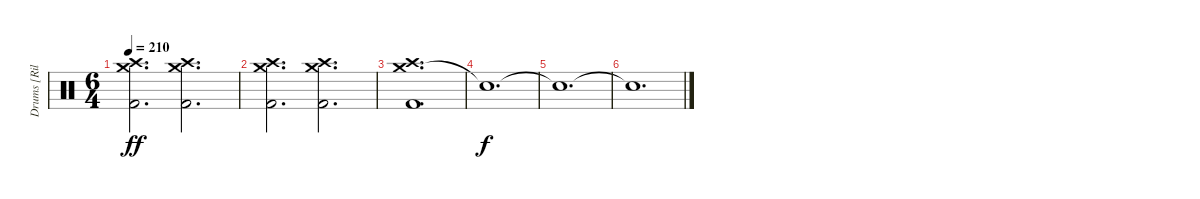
\track ("Drums [Riley]" "Drums [Ril") {instrument percussion}
\staff {score}
\articulation defaults
\ts (6 4)
\tempo 210
\clef neutral
\ks c
("Crash medium (hit)" "Crash high (hit)" "Kick (hit) 2").2{d dy ff} ("Crash medium (hit)" "Crash high (hit)" "Kick (hit) 2").2{d} |
("Crash medium (hit)" "Crash high (hit)" "Kick (hit) 2").2{d} ("Crash medium (hit)" "Crash high (hit)" "Kick (hit) 2").2{d} |
("Crash medium (hit)" "Crash high (hit)" "Kick (hit) 2").1{d volume 0} |
"Snare (hit)"{t}.1{d dy f} |
"Snare (hit)"{t}.1{d} |
"Snare (hit)"{t}.1{d}
